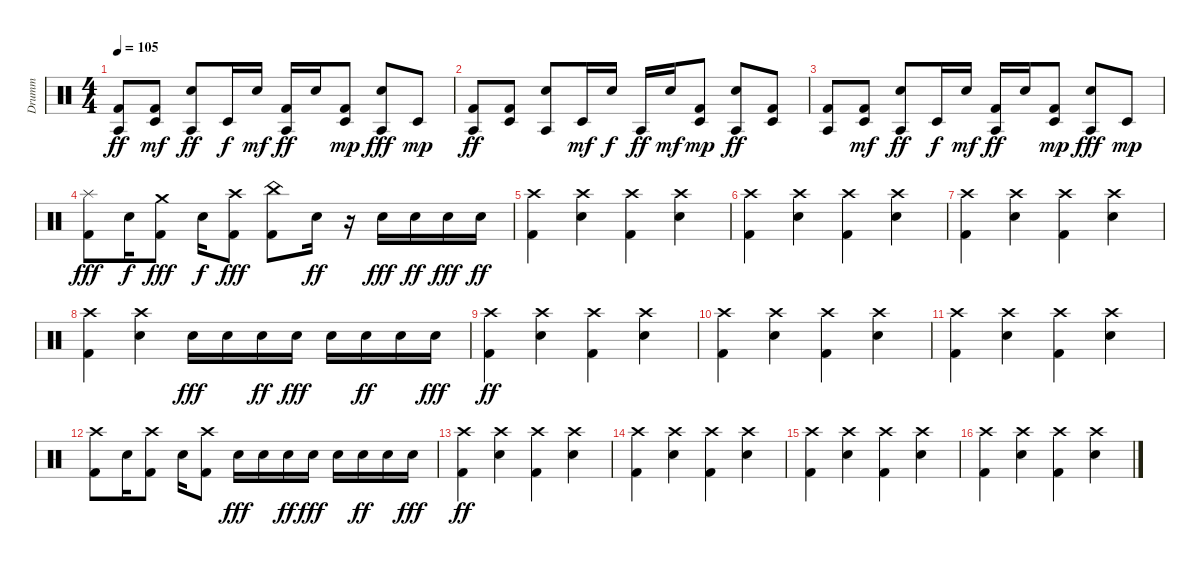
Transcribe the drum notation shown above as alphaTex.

\track ("Drumm" "Drumm") {instrument percussion}
\staff {score}
\articulation defaults
\ts (4 4)
\tempo 105
\clef neutral
\ks c
("Kick (hit) 2" "Agogo tow (hit)").8{dy ff} ("Kick (hit) 2" "Timbale low (hit)").8{dy mf} ("Snare (hit) 2" "Agogo tow (hit)").8{dy ff} "Timbale low (hit)".16{dy f} "Snare (hit) 2".16{dy mf} ("Kick (hit) 2" "Agogo tow (hit)").16{dy ff} "Snare (hit) 2".16 ("Kick (hit) 2" "Timbale low (hit)").8{dy mp} ("Snare (hit) 2" "Agogo tow (hit)").8{dy fff} "Timbale low (hit)".8{dy mp} |
("Kick (hit) 2" "Agogo tow (hit)").8{dy ff} ("Kick (hit) 2" "Timbale low (hit)").8 ("Snare (hit) 2" "Agogo tow (hit)").8 "Timbale low (hit)".16{dy mf} "Snare (hit) 2".16{dy f} "Agogo tow (hit)".16{dy ff} "Snare (hit) 2".16{dy mf} ("Kick (hit) 2" "Timbale low (hit)").8{dy mp} ("Snare (hit) 2" "Agogo tow (hit)").8{dy ff} ("Kick (hit) 2" "Timbale low (hit)").8 |
("Kick (hit) 2" "Agogo tow (hit)").8 ("Kick (hit) 2" "Timbale low (hit)").8{dy mf} ("Snare (hit) 2" "Agogo tow (hit)").8{dy ff} "Timbale low (hit)".16{dy f} "Snare (hit) 2".16{dy mf} ("Kick (hit) 2" "Agogo tow (hit)").16{dy ff} "Snare (hit) 2".16 ("Kick (hit) 2" "Timbale low (hit)").8{dy mp} ("Snare (hit) 2" "Agogo tow (hit)").8{dy fff} "Timbale low (hit)".8{dy mp} |
("Kick (hit) 2" "Splash (hit)").8{dy fff} "Snare (hit) 2".16{dy f} ("Kick (hit) 2" "Crash medium (hit)").8{dy fff} "Hand Clap (hit)".16{dy f} ("Kick (hit) 2" "Crash high (hit)").8{dy fff} ("Kick (hit) 2" "China (hit)").8 "Snare (hit) 2".16{dy ff} r.16 "Snare (hit) 2".16{dy fff} "Snare (hit) 2".16{dy ff} "Snare (hit) 2".16{dy fff} "Snare (hit) 2".16{dy ff} |
("Kick (hit) 2" "Crash high (hit)").4 ("Snare (hit) 2" "Crash high (hit)").4 ("Kick (hit) 2" "Crash high (hit)").4 ("Snare (hit) 2" "Crash high (hit)").4 |
("Kick (hit) 2" "Crash high (hit)").4 ("Snare (hit) 2" "Crash high (hit)").4 ("Kick (hit) 2" "Crash high (hit)").4 ("Snare (hit) 2" "Crash high (hit)").4 |
("Kick (hit) 2" "Crash high (hit)").4 ("Snare (hit) 2" "Crash high (hit)").4 ("Kick (hit) 2" "Crash high (hit)").4 ("Snare (hit) 2" "Crash high (hit)").4 |
("Kick (hit) 2" "Crash high (hit)").4 ("Snare (hit) 2" "Crash high (hit)").4 "Snare (hit) 2".16{dy fff} "Snare (hit) 2".16 "Snare (hit) 2".16{dy ff} "Snare (hit) 2".16{dy fff} "Snare (hit) 2".16 "Snare (hit) 2".16{dy ff} "Snare (hit) 2".16 "Snare (hit) 2".16{dy fff} |
("Kick (hit) 2" "Crash high (hit)").4{dy ff} ("Snare (hit) 2" "Crash high (hit)").4 ("Kick (hit) 2" "Crash high (hit)").4 ("Snare (hit) 2" "Crash high (hit)").4 |
("Kick (hit) 2" "Crash high (hit)").4 ("Snare (hit) 2" "Crash high (hit)").4 ("Kick (hit) 2" "Crash high (hit)").4 ("Snare (hit) 2" "Crash high (hit)").4 |
("Kick (hit) 2" "Crash high (hit)").4 ("Snare (hit) 2" "Crash high (hit)").4 ("Kick (hit) 2" "Crash high (hit)").4 ("Snare (hit) 2" "Crash high (hit)").4 |
("Kick (hit) 2" "Crash high (hit)").8 "Snare (hit) 2".16 ("Kick (hit) 2" "Crash high (hit)").8 "Snare (hit) 2".16 ("Kick (hit) 2" "Crash high (hit)").8 "Snare (hit) 2".16{dy fff} "Snare (hit) 2".16 "Snare (hit) 2".16{dy ff} "Snare (hit) 2".16{dy fff} "Snare (hit) 2".16 "Snare (hit) 2".16{dy ff} "Snare (hit) 2".16 "Snare (hit) 2".16{dy fff} |
("Kick (hit) 2" "Crash high (hit)").4{dy ff} ("Snare (hit) 2" "Crash high (hit)").4 ("Kick (hit) 2" "Crash high (hit)").4 ("Snare (hit) 2" "Crash high (hit)").4 |
("Kick (hit) 2" "Crash high (hit)").4 ("Snare (hit) 2" "Crash high (hit)").4 ("Kick (hit) 2" "Crash high (hit)").4 ("Snare (hit) 2" "Crash high (hit)").4 |
("Kick (hit) 2" "Crash high (hit)").4 ("Snare (hit) 2" "Crash high (hit)").4 ("Kick (hit) 2" "Crash high (hit)").4 ("Snare (hit) 2" "Crash high (hit)").4 |
("Kick (hit) 2" "Crash high (hit)").4 ("Snare (hit) 2" "Crash high (hit)").4 ("Kick (hit) 2" "Crash high (hit)").4 ("Snare (hit) 2" "Crash high (hit)").4
